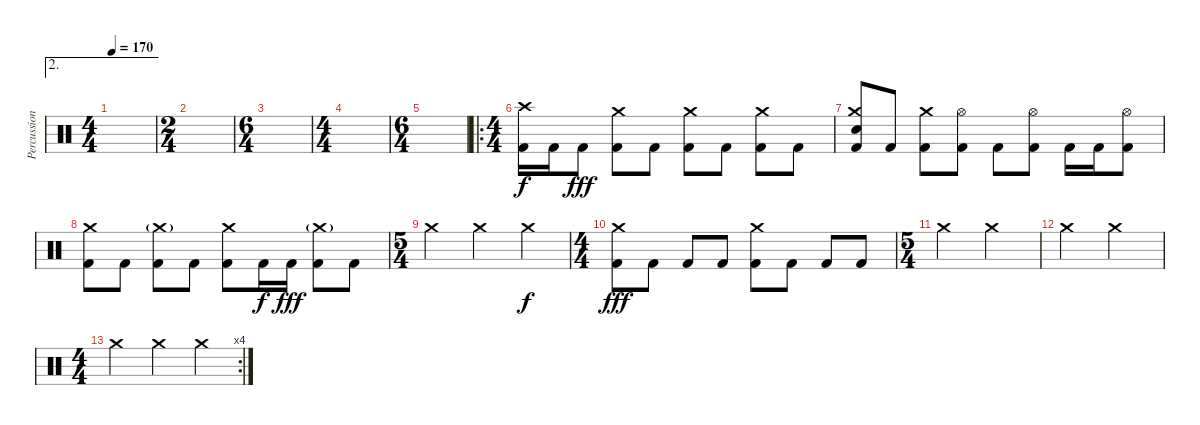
\track ("Percussion" "Percussion") {instrument percussion bank 177}
\staff {score}
\articulation defaults
\ae 2
\ts (4 4)
\tempo 170
\clef neutral
\ks c
|
\ts (2 4)
|
\ts (6 4)
|
\ts (4 4)
|
\ts (6 4)
|
\ro
\ts (4 4)
("Crash high (hit)" "Kick (hit) 2").16 "Kick (hit) 2".16{dy f} "Kick (hit) 2".8{dy fff} ("Crash medium (hit)" "Kick (hit) 2").8 "Kick (hit) 2".8 ("Crash medium (hit)" "Kick (hit) 2").8 "Kick (hit) 2".8 ("Crash medium (hit)" "Kick (hit) 2").8 "Kick (hit) 2".8 |
("Crash medium (hit)" "Electric Snare (hit)" "Kick (hit) 2").8 "Kick (hit) 2".8 ("Crash medium (hit)" "Kick (hit) 2").8 ("Hi-Hat (open)" "Kick (hit) 2").8 "Kick (hit) 2".8 ("Hi-Hat (open)" "Kick (hit) 2").8 "Kick (hit) 2".16 "Kick (hit) 2".16 ("Hi-Hat (open)" "Kick (hit) 2").8 |
("Crash medium (hit)" "Kick (hit) 2").8 "Kick (hit) 2".8 ("Crash medium (hit)"{g} "Kick (hit) 2").8 "Kick (hit) 2".8 ("Crash medium (hit)" "Kick (hit) 2").8 "Kick (hit) 2".16{dy f} "Kick (hit) 2".16{dy fff} ("Crash medium (hit)"{g} "Kick (hit) 2").8 "Kick (hit) 2".8 |
\ts (5 4)
"Crash medium (hit)".2 "Crash medium (hit)".2 "Crash medium (hit)".4{dy f} |
\ts (4 4)
("Crash medium (hit)" "Kick (hit) 2").8{dy fff} "Kick (hit) 2".8 "Kick (hit) 2".8 "Kick (hit) 2".8 ("Crash medium (hit)" "Kick (hit) 2").8 "Kick (hit) 2".8 "Kick (hit) 2".8 "Kick (hit) 2".8 |
\ts (5 4)
"Crash medium (hit)".2 "Crash medium (hit)".2 |
"Crash medium (hit)".2 "Crash medium (hit)".2 |
\rc 4
\ts (4 4)
"Crash medium (hit)".2 "Crash medium (hit)".2 "Crash medium (hit)".4
